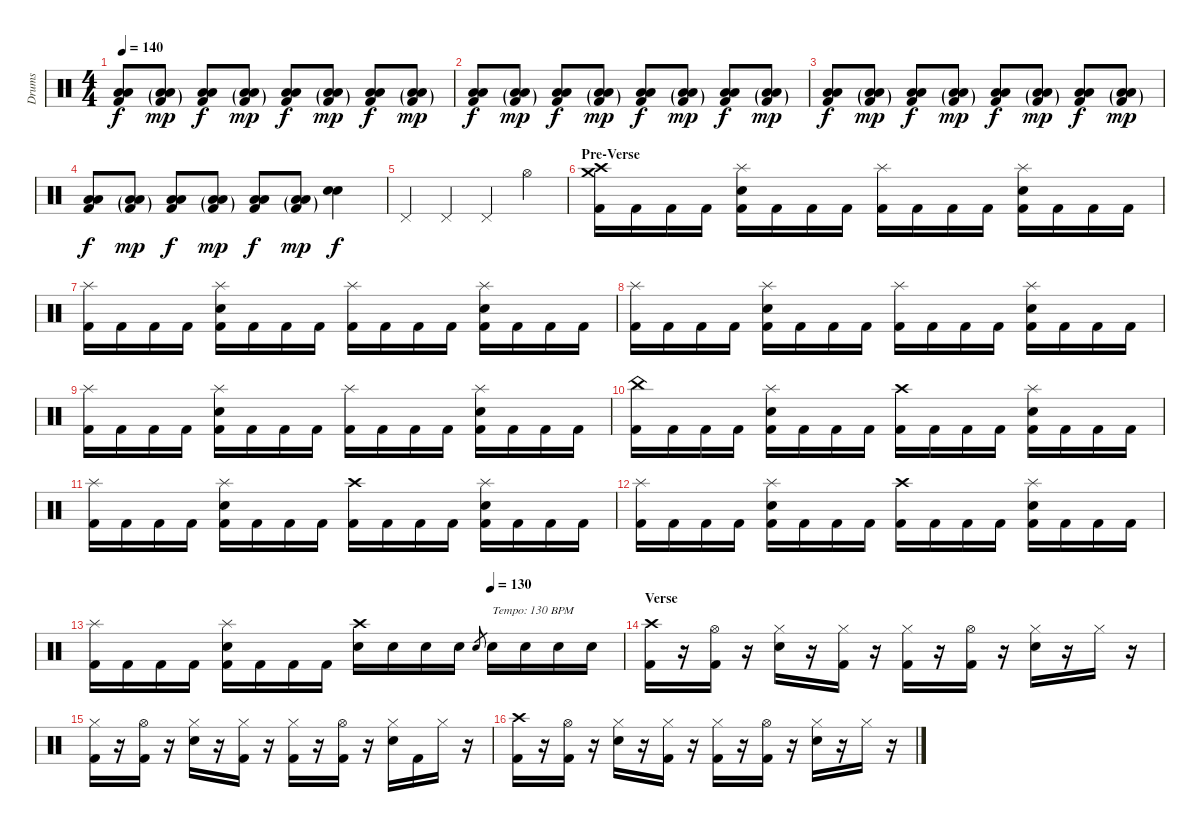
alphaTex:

\track ("Drums" "Drums") {instrument percussion}
\staff {score}
\articulation defaults
\ts (4 4)
\tempo 140
\clef neutral
\ks c
("Low Tom (hit)" "Low Floor Tom (hit)" "Kick (hit) 2").8{dy f} ("Low Tom (hit)"{g} "Low Floor Tom (hit)"{g} "Kick (hit) 2"{g}).8{dy mp} ("Low Tom (hit)" "Low Floor Tom (hit)" "Kick (hit) 2").8{dy f} ("Low Tom (hit)"{g} "Low Floor Tom (hit)"{g} "Kick (hit) 2"{g}).8{dy mp} ("Low Tom (hit)" "Low Floor Tom (hit)" "Kick (hit) 2").8{dy f} ("Low Tom (hit)"{g} "Low Floor Tom (hit)"{g} "Kick (hit) 2"{g}).8{dy mp} ("Low Tom (hit)" "Low Floor Tom (hit)" "Kick (hit) 2").8{dy f} ("Low Tom (hit)"{g} "Low Floor Tom (hit)"{g} "Kick (hit) 2"{g}).8{dy mp} |
("Low Tom (hit)" "Low Floor Tom (hit)" "Kick (hit) 2").8{dy f} ("Low Tom (hit)"{g} "Low Floor Tom (hit)"{g} "Kick (hit) 2"{g}).8{dy mp} ("Low Tom (hit)" "Low Floor Tom (hit)" "Kick (hit) 2").8{dy f} ("Low Tom (hit)"{g} "Low Floor Tom (hit)"{g} "Kick (hit) 2"{g}).8{dy mp} ("Low Tom (hit)" "Low Floor Tom (hit)" "Kick (hit) 2").8{dy f} ("Low Tom (hit)"{g} "Low Floor Tom (hit)"{g} "Kick (hit) 2"{g}).8{dy mp} ("Low Tom (hit)" "Low Floor Tom (hit)" "Kick (hit) 2").8{dy f} ("Low Tom (hit)"{g} "Low Floor Tom (hit)"{g} "Kick (hit) 2"{g}).8{dy mp} |
("Low Tom (hit)" "Low Floor Tom (hit)" "Kick (hit) 2").8{dy f} ("Low Tom (hit)"{g} "Low Floor Tom (hit)"{g} "Kick (hit) 2"{g}).8{dy mp} ("Low Tom (hit)" "Low Floor Tom (hit)" "Kick (hit) 2").8{dy f} ("Low Tom (hit)"{g} "Low Floor Tom (hit)"{g} "Kick (hit) 2"{g}).8{dy mp} ("Low Tom (hit)" "Low Floor Tom (hit)" "Kick (hit) 2").8{dy f} ("Low Tom (hit)"{g} "Low Floor Tom (hit)"{g} "Kick (hit) 2"{g}).8{dy mp} ("Low Tom (hit)" "Low Floor Tom (hit)" "Kick (hit) 2").8{dy f} ("Low Tom (hit)"{g} "Low Floor Tom (hit)"{g} "Kick (hit) 2"{g}).8{dy mp} |
("Low Tom (hit)" "Low Floor Tom (hit)" "Kick (hit) 2").8{dy f} ("Low Tom (hit)"{g} "Low Floor Tom (hit)"{g} "Kick (hit) 2"{g}).8{dy mp} ("Low Tom (hit)" "Low Floor Tom (hit)" "Kick (hit) 2").8{dy f} ("Low Tom (hit)"{g} "Low Floor Tom (hit)"{g} "Kick (hit) 2"{g}).8{dy mp} ("Low Tom (hit)" "Low Floor Tom (hit)" "Kick (hit) 2").8{dy f} ("Low Tom (hit)"{g} "Low Floor Tom (hit)"{g} "Kick (hit) 2"{g}).8{dy mp} ("Electric Snare (hit)" "Electric Snare (hit)").4{dy f} |
"Pedal Hi-Hat (hit)".4 "Pedal Hi-Hat (hit)".4 "Pedal Hi-Hat (hit)".4 "Hi-Hat (open)".4 |
\section ("" "Pre-Verse")
("Crash medium (hit)" "Crash high (hit)" "Kick (hit) 2").16 "Kick (hit) 2".16 "Kick (hit) 2".16 "Kick (hit) 2".16 ("Splash (hit)" "Electric Snare (hit)" "Kick (hit) 2").16 "Kick (hit) 2".16 "Kick (hit) 2".16 "Kick (hit) 2".16 ("Splash (hit)" "Kick (hit) 2").16 "Kick (hit) 2".16 "Kick (hit) 2".16 "Kick (hit) 2".16 ("Splash (hit)" "Electric Snare (hit)" "Kick (hit) 2").16 "Kick (hit) 2".16 "Kick (hit) 2".16 "Kick (hit) 2".16 |
("Splash (hit)" "Kick (hit) 2").16 "Kick (hit) 2".16 "Kick (hit) 2".16 "Kick (hit) 2".16 ("Splash (hit)" "Electric Snare (hit)" "Kick (hit) 2").16 "Kick (hit) 2".16 "Kick (hit) 2".16 "Kick (hit) 2".16 ("Splash (hit)" "Kick (hit) 2").16 "Kick (hit) 2".16 "Kick (hit) 2".16 "Kick (hit) 2".16 ("Splash (hit)" "Electric Snare (hit)" "Kick (hit) 2").16 "Kick (hit) 2".16 "Kick (hit) 2".16 "Kick (hit) 2".16 |
("Splash (hit)" "Kick (hit) 2").16 "Kick (hit) 2".16 "Kick (hit) 2".16 "Kick (hit) 2".16 ("Splash (hit)" "Electric Snare (hit)" "Kick (hit) 2").16 "Kick (hit) 2".16 "Kick (hit) 2".16 "Kick (hit) 2".16 ("Splash (hit)" "Kick (hit) 2").16 "Kick (hit) 2".16 "Kick (hit) 2".16 "Kick (hit) 2".16 ("Splash (hit)" "Electric Snare (hit)" "Kick (hit) 2").16 "Kick (hit) 2".16 "Kick (hit) 2".16 "Kick (hit) 2".16 |
("Splash (hit)" "Kick (hit) 2").16 "Kick (hit) 2".16 "Kick (hit) 2".16 "Kick (hit) 2".16 ("Splash (hit)" "Electric Snare (hit)" "Kick (hit) 2").16 "Kick (hit) 2".16 "Kick (hit) 2".16 "Kick (hit) 2".16 ("Splash (hit)" "Kick (hit) 2").16 "Kick (hit) 2".16 "Kick (hit) 2".16 "Kick (hit) 2".16 ("Splash (hit)" "Electric Snare (hit)" "Kick (hit) 2").16 "Kick (hit) 2".16 "Kick (hit) 2".16 "Kick (hit) 2".16 |
("China (hit)" "Kick (hit) 2").16 "Kick (hit) 2".16 "Kick (hit) 2".16 "Kick (hit) 2".16 ("Splash (hit)" "Electric Snare (hit)" "Kick (hit) 2").16 "Kick (hit) 2".16 "Kick (hit) 2".16 "Kick (hit) 2".16 ("Crash high (hit)" "Kick (hit) 2").16 "Kick (hit) 2".16 "Kick (hit) 2".16 "Kick (hit) 2".16 ("Splash (hit)" "Electric Snare (hit)" "Kick (hit) 2").16 "Kick (hit) 2".16 "Kick (hit) 2".16 "Kick (hit) 2".16 |
("Splash (hit)" "Kick (hit) 2").16 "Kick (hit) 2".16 "Kick (hit) 2".16 "Kick (hit) 2".16 ("Splash (hit)" "Electric Snare (hit)" "Kick (hit) 2").16 "Kick (hit) 2".16 "Kick (hit) 2".16 "Kick (hit) 2".16 ("Crash high (hit)" "Kick (hit) 2").16 "Kick (hit) 2".16 "Kick (hit) 2".16 "Kick (hit) 2".16 ("Splash (hit)" "Electric Snare (hit)" "Kick (hit) 2").16 "Kick (hit) 2".16 "Kick (hit) 2".16 "Kick (hit) 2".16 |
("Splash (hit)" "Kick (hit) 2").16 "Kick (hit) 2".16 "Kick (hit) 2".16 "Kick (hit) 2".16 ("Splash (hit)" "Electric Snare (hit)" "Kick (hit) 2").16 "Kick (hit) 2".16 "Kick (hit) 2".16 "Kick (hit) 2".16 ("Crash high (hit)" "Kick (hit) 2").16 "Kick (hit) 2".16 "Kick (hit) 2".16 "Kick (hit) 2".16 ("Splash (hit)" "Electric Snare (hit)" "Kick (hit) 2").16 "Kick (hit) 2".16 "Kick (hit) 2".16 "Kick (hit) 2".16 |
\tempo (130 0.75)
("Splash (hit)" "Kick (hit) 2").16 "Kick (hit) 2".16 "Kick (hit) 2".16 "Kick (hit) 2".16 ("Splash (hit)" "Electric Snare (hit)" "Kick (hit) 2").16 "Kick (hit) 2".16 "Kick (hit) 2".16 "Kick (hit) 2".16 ("Crash high (hit)" "Electric Snare (hit)").16 "Electric Snare (hit)".16 "Electric Snare (hit)".16 "Electric Snare (hit)".16 "Electric Snare (hit)".8{gr} "Electric Snare (hit)".16{txt "Tempo: 130 BPM"} "Electric Snare (hit)".16 "Electric Snare (hit)".16 "Electric Snare (hit)".16 |
\section ("" "Verse")
("Crash high (hit)" "Kick (hit) 2").16 r.16 ("Hi-Hat (open)" "Kick (hit) 2").16 r.16 ("Hi-Hat (closed)" "Electric Snare (hit)").16 r.16 ("Hi-Hat (closed)" "Kick (hit) 2").16 r.16 ("Hi-Hat (closed)" "Kick (hit) 2").16 r.16 ("Hi-Hat (open)" "Kick (hit) 2").16 r.16 ("Hi-Hat (closed)" "Electric Snare (hit)").16 r.16 "Hi-Hat (closed)".16 r.16 |
("Hi-Hat (closed)" "Kick (hit) 2").16 r.16 ("Hi-Hat (open)" "Kick (hit) 2").16 r.16 ("Hi-Hat (closed)" "Electric Snare (hit)").16 r.16 ("Hi-Hat (closed)" "Kick (hit) 2").16 r.16 ("Hi-Hat (closed)" "Kick (hit) 2").16 r.16 ("Hi-Hat (open)" "Kick (hit) 2").16 r.16 ("Hi-Hat (closed)" "Electric Snare (hit)").16 "Kick (hit) 2".16 "Hi-Hat (closed)".16 r.16 |
("Crash high (hit)" "Kick (hit) 2").16 r.16 ("Hi-Hat (open)" "Kick (hit) 2").16 r.16 ("Hi-Hat (closed)" "Electric Snare (hit)").16 r.16 ("Hi-Hat (closed)" "Kick (hit) 2").16 r.16 ("Hi-Hat (closed)" "Kick (hit) 2").16 r.16 ("Hi-Hat (open)" "Kick (hit) 2").16 r.16 ("Hi-Hat (closed)" "Electric Snare (hit)").16 r.16 "Hi-Hat (closed)".16 r.16
